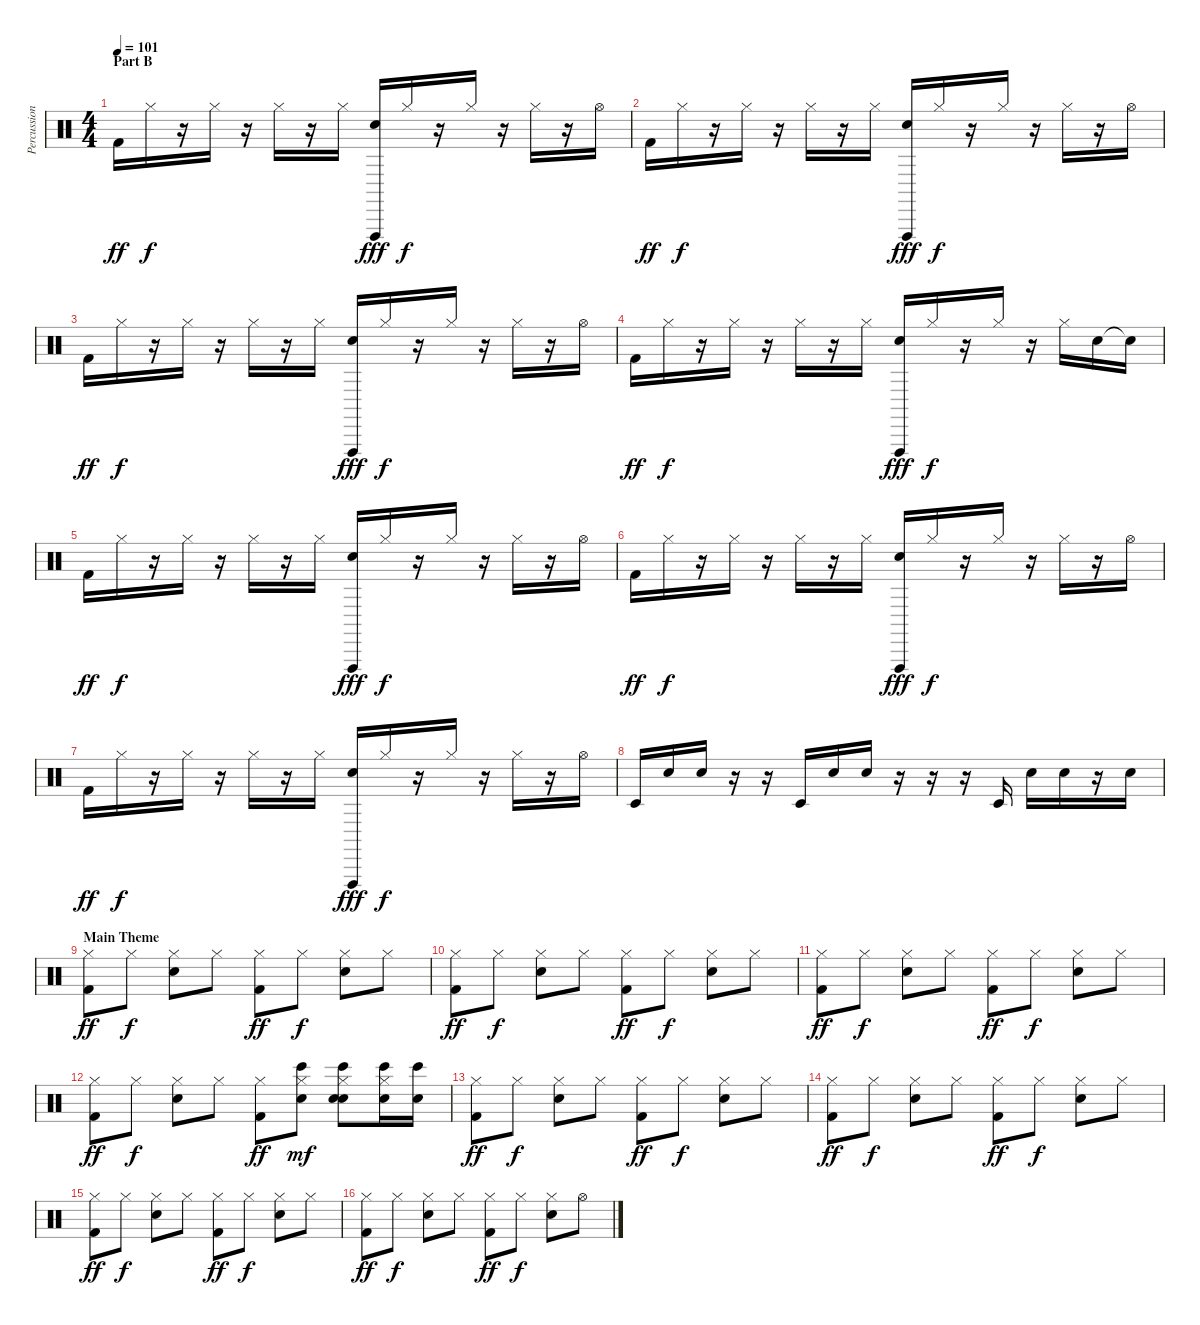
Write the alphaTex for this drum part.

\track ("Percussion" "Percussion") {instrument percussion}
\staff {score}
\articulation defaults
\ts (4 4)
\section ("" "Part B")
\tempo 101
\clef neutral
\ks c "Kick (hit) 2".16{dy ff} "Hi-Hat (closed)".16{dy f}
r.16 "Hi-Hat (closed)".16 r.16 "Hi-Hat (closed)".16 r.16 "Hi-Hat (closed)".16 ("Vibraslap (hit)" "Electric Snare (hit)").16{dy fff} "Hi-Hat (closed)".16{dy f} r.16 "Hi-Hat (closed)".16 r.16 "Hi-Hat (closed)".16 r.16 "Hi-Hat (open)".16 |
"Kick (hit) 2".16{dy ff} "Hi-Hat (closed)".16{dy f} r.16 "Hi-Hat (closed)".16 r.16 "Hi-Hat (closed)".16 r.16 "Hi-Hat (closed)".16 ("Vibraslap (hit)" "Electric Snare (hit)").16{dy fff} "Hi-Hat (closed)".16{dy f} r.16 "Hi-Hat (closed)".16 r.16 "Hi-Hat (closed)".16 r.16 "Hi-Hat (open)".16 |
"Kick (hit) 2".16{dy ff} "Hi-Hat (closed)".16{dy f} r.16 "Hi-Hat (closed)".16 r.16 "Hi-Hat (closed)".16 r.16 "Hi-Hat (closed)".16 ("Vibraslap (hit)" "Electric Snare (hit)").16{dy fff} "Hi-Hat (closed)".16{dy f} r.16 "Hi-Hat (closed)".16 r.16 "Hi-Hat (closed)".16 r.16 "Hi-Hat (open)".16 |
"Kick (hit) 2".16{dy ff} "Hi-Hat (closed)".16{dy f} r.16 "Hi-Hat (closed)".16 r.16 "Hi-Hat (closed)".16 r.16 "Hi-Hat (closed)".16 ("Vibraslap (hit)" "Electric Snare (hit)").16{dy fff} "Hi-Hat (closed)".16{dy f} r.16 "Hi-Hat (closed)".16 r.16 "Hi-Hat (closed)".16 "Electric Snare (hit)"{tr (40 64)}.16 "Snare (hit)"{t}.16 |
"Kick (hit) 2".16{dy ff} "Hi-Hat (closed)".16{dy f} r.16 "Hi-Hat (closed)".16 r.16 "Hi-Hat (closed)".16 r.16 "Hi-Hat (closed)".16 ("Vibraslap (hit)" "Electric Snare (hit)").16{dy fff} "Hi-Hat (closed)".16{dy f} r.16 "Hi-Hat (closed)".16 r.16 "Hi-Hat (closed)".16 r.16 "Hi-Hat (open)".16 |
"Kick (hit) 2".16{dy ff} "Hi-Hat (closed)".16{dy f} r.16 "Hi-Hat (closed)".16 r.16 "Hi-Hat (closed)".16 r.16 "Hi-Hat (closed)".16 ("Vibraslap (hit)" "Electric Snare (hit)").16{dy fff} "Hi-Hat (closed)".16{dy f} r.16 "Hi-Hat (closed)".16 r.16 "Hi-Hat (closed)".16 r.16 "Hi-Hat (open)".16 |
"Kick (hit) 2".16{dy ff} "Hi-Hat (closed)".16{dy f} r.16 "Hi-Hat (closed)".16 r.16 "Hi-Hat (closed)".16 r.16 "Hi-Hat (closed)".16 ("Vibraslap (hit)" "Electric Snare (hit)").16{dy fff} "Hi-Hat (closed)".16{dy f} r.16 "Hi-Hat (closed)".16 r.16 "Hi-Hat (closed)".16 r.16 "Hi-Hat (open)".16 |
"Timbale low (hit)".16 "Electric Snare (hit)".16 "Electric Snare (hit)".16 r.16 r.16 "Timbale low (hit)".16 "Electric Snare (hit)".16 "Electric Snare (hit)".16 r.16 r.16 r.16 "Timbale low (hit)".16 "Electric Snare (hit)".16 "Electric Snare (hit)".16 r.16 "Electric Snare (hit)".16 |
\section ("" "Main Theme")
("Hi-Hat (closed)" "Kick (hit) 2").8{dy ff} "Hi-Hat (closed)".8{dy f} ("Hi-Hat (closed)" "Electric Snare (hit)").8 "Hi-Hat (closed)".8 ("Hi-Hat (closed)" "Kick (hit) 2").8{dy ff} "Hi-Hat (closed)".8{dy f} ("Hi-Hat (closed)" "Electric Snare (hit)").8 "Hi-Hat (closed)".8 |
("Hi-Hat (closed)" "Kick (hit) 2").8{dy ff} "Hi-Hat (closed)".8{dy f} ("Hi-Hat (closed)" "Electric Snare (hit)").8 "Hi-Hat (closed)".8 ("Hi-Hat (closed)" "Kick (hit) 2").8{dy ff} "Hi-Hat (closed)".8{dy f} ("Hi-Hat (closed)" "Electric Snare (hit)").8 "Hi-Hat (closed)".8 |
("Hi-Hat (closed)" "Kick (hit) 2").8{dy ff} "Hi-Hat (closed)".8{dy f} ("Hi-Hat (closed)" "Electric Snare (hit)").8 "Hi-Hat (closed)".8 ("Hi-Hat (closed)" "Kick (hit) 2").8{dy ff} "Hi-Hat (closed)".8{dy f} ("Hi-Hat (closed)" "Electric Snare (hit)").8 "Hi-Hat (closed)".8 |
("Hi-Hat (closed)" "Kick (hit) 2").8{dy ff} "Hi-Hat (closed)".8{dy f} ("Hi-Hat (closed)" "Electric Snare (hit)").8 "Hi-Hat (closed)".8 ("Hi-Hat (closed)" "Kick (hit) 2").8{dy ff} ("Hi-Hat (closed)" "Bongo High (hit)" "Hand Clap (hit)").8{dy mf} ("Hi-Hat (closed)" "Bongo High (hit)" "Hand Clap (hit)" "Electric Snare (hit)").8 ("Hi-Hat (closed)" "Bongo High (hit)" "Hand Clap (hit)").16 ("Bongo High (hit)" "Hand Clap (hit)").16 |
("Hi-Hat (closed)" "Kick (hit) 2").8{dy ff} "Hi-Hat (closed)".8{dy f} ("Hi-Hat (closed)" "Electric Snare (hit)").8 "Hi-Hat (closed)".8 ("Hi-Hat (closed)" "Kick (hit) 2").8{dy ff} "Hi-Hat (closed)".8{dy f} ("Hi-Hat (closed)" "Electric Snare (hit)").8 "Hi-Hat (closed)".8 |
("Hi-Hat (closed)" "Kick (hit) 2").8{dy ff} "Hi-Hat (closed)".8{dy f} ("Hi-Hat (closed)" "Electric Snare (hit)").8 "Hi-Hat (closed)".8 ("Hi-Hat (closed)" "Kick (hit) 2").8{dy ff} "Hi-Hat (closed)".8{dy f} ("Hi-Hat (closed)" "Electric Snare (hit)").8 "Hi-Hat (closed)".8 |
("Hi-Hat (closed)" "Kick (hit) 2").8{dy ff} "Hi-Hat (closed)".8{dy f} ("Hi-Hat (closed)" "Electric Snare (hit)").8 "Hi-Hat (closed)".8 ("Hi-Hat (closed)" "Kick (hit) 2").8{dy ff} "Hi-Hat (closed)".8{dy f} ("Hi-Hat (closed)" "Electric Snare (hit)").8 "Hi-Hat (closed)".8 |
("Hi-Hat (closed)" "Kick (hit) 2").8{dy ff} "Hi-Hat (closed)".8{dy f} ("Hi-Hat (closed)" "Electric Snare (hit)").8 "Hi-Hat (closed)".8 ("Hi-Hat (closed)" "Kick (hit) 2").8{dy ff} "Hi-Hat (closed)".8{dy f} ("Hi-Hat (closed)" "Electric Snare (hit)").8 "Hi-Hat (open)".8
